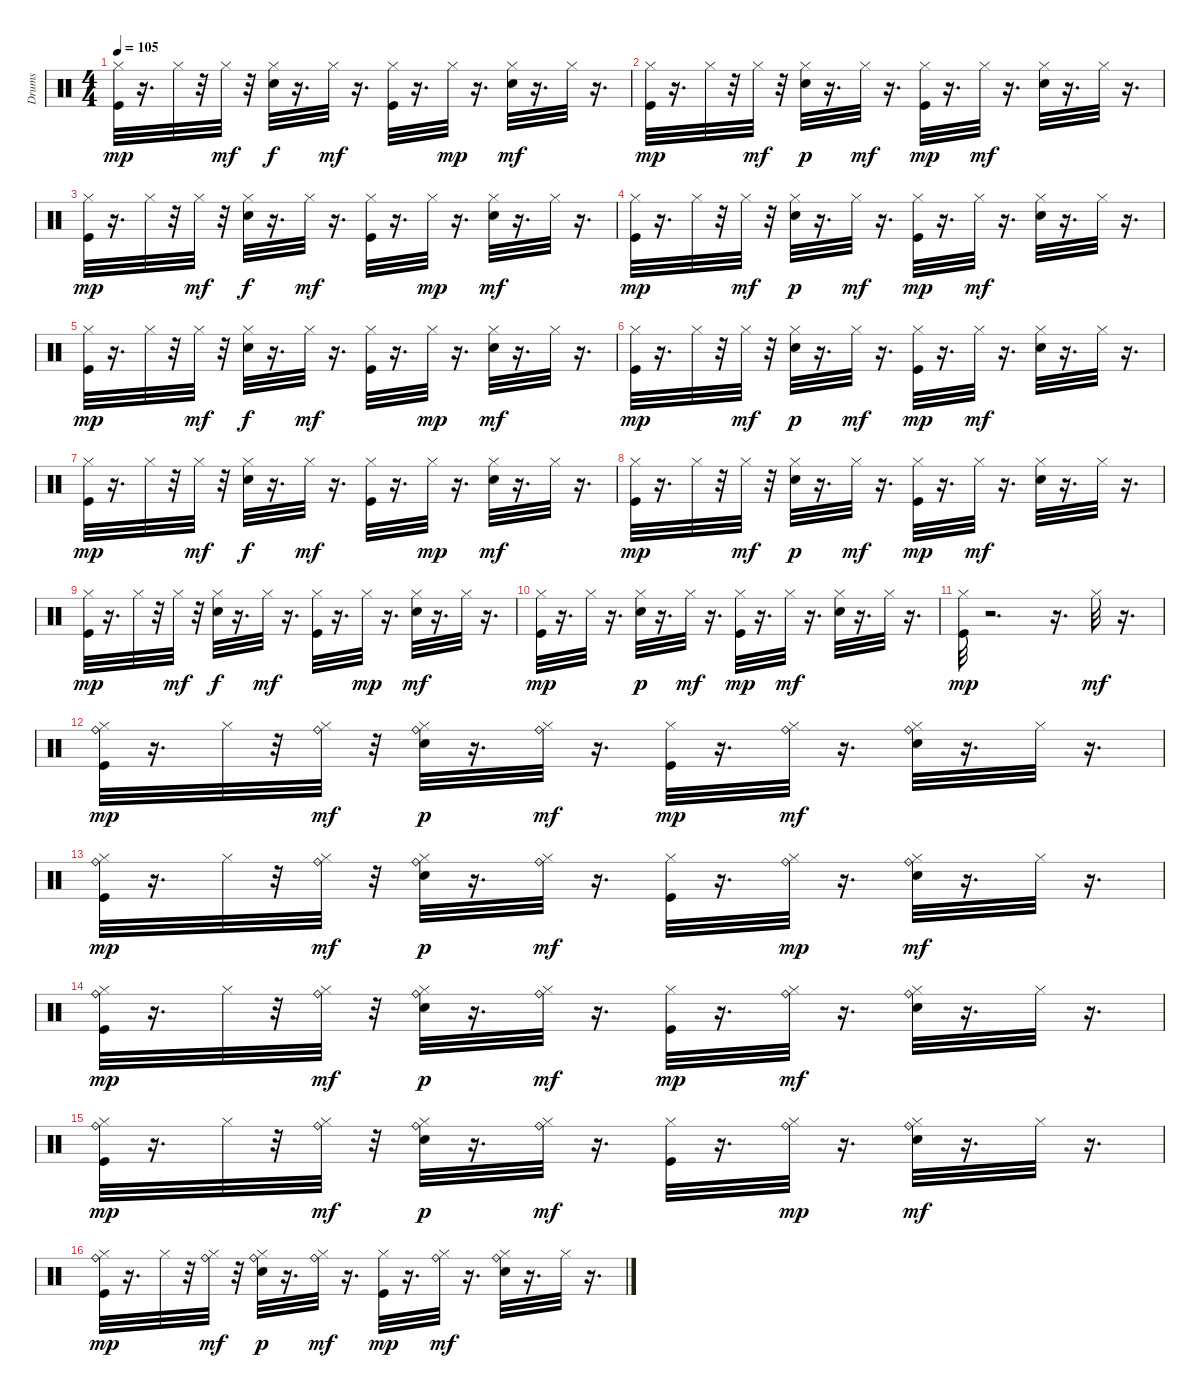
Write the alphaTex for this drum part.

\track ("Drums" "Drums") {instrument percussion}
\staff {score}
\articulation defaults
\ts (4 4)
\tempo 105
\clef neutral
\ks c
("Kick (hit)" "Hi-Hat (closed)").32{dy mp} r.16{d} "Hi-Hat (closed)".32 r.32 "Hi-Hat (closed)".32{dy mf} r.32 ("Snare (hit) 2" "Hi-Hat (closed)").32{dy f} r.16{d} "Hi-Hat (closed)".32{dy mf} r.16{d} ("Kick (hit)" "Hi-Hat (closed)").32 r.16{d} "Hi-Hat (closed)".32{dy mp} r.16{d} ("Snare (hit) 2" "Hi-Hat (closed)").32{dy mf} r.16{d} "Hi-Hat (closed)".32 r.16{d} |
("Kick (hit)" "Hi-Hat (closed)").32{dy mp} r.16{d} "Hi-Hat (closed)".32 r.32 "Hi-Hat (closed)".32{dy mf} r.32 ("Snare (hit) 2" "Hi-Hat (closed)").32{dy p} r.16{d} "Hi-Hat (closed)".32{dy mf} r.16{d} ("Kick (hit)" "Hi-Hat (closed)").32{dy mp} r.16{d} "Hi-Hat (closed)".32{dy mf} r.16{d} ("Snare (hit) 2" "Hi-Hat (closed)").32 r.16{d} "Hi-Hat (closed)".32 r.16{d} |
("Kick (hit)" "Hi-Hat (closed)").32{dy mp} r.16{d} "Hi-Hat (closed)".32 r.32 "Hi-Hat (closed)".32{dy mf} r.32 ("Snare (hit) 2" "Hi-Hat (closed)").32{dy f} r.16{d} "Hi-Hat (closed)".32{dy mf} r.16{d} ("Kick (hit)" "Hi-Hat (closed)").32 r.16{d} "Hi-Hat (closed)".32{dy mp} r.16{d} ("Snare (hit) 2" "Hi-Hat (closed)").32{dy mf} r.16{d} "Hi-Hat (closed)".32 r.16{d} |
("Kick (hit)" "Hi-Hat (closed)").32{dy mp} r.16{d} "Hi-Hat (closed)".32 r.32 "Hi-Hat (closed)".32{dy mf} r.32 ("Snare (hit) 2" "Hi-Hat (closed)").32{dy p} r.16{d} "Hi-Hat (closed)".32{dy mf} r.16{d} ("Kick (hit)" "Hi-Hat (closed)").32{dy mp} r.16{d} "Hi-Hat (closed)".32{dy mf} r.16{d} ("Snare (hit) 2" "Hi-Hat (closed)").32 r.16{d} "Hi-Hat (closed)".32 r.16{d} |
("Kick (hit)" "Hi-Hat (closed)").32{dy mp} r.16{d} "Hi-Hat (closed)".32 r.32 "Hi-Hat (closed)".32{dy mf} r.32 ("Snare (hit) 2" "Hi-Hat (closed)").32{dy f} r.16{d} "Hi-Hat (closed)".32{dy mf} r.16{d} ("Kick (hit)" "Hi-Hat (closed)").32 r.16{d} "Hi-Hat (closed)".32{dy mp} r.16{d} ("Snare (hit) 2" "Hi-Hat (closed)").32{dy mf} r.16{d} "Hi-Hat (closed)".32 r.16{d} |
("Kick (hit)" "Hi-Hat (closed)").32{dy mp} r.16{d} "Hi-Hat (closed)".32 r.32 "Hi-Hat (closed)".32{dy mf} r.32 ("Snare (hit) 2" "Hi-Hat (closed)").32{dy p} r.16{d} "Hi-Hat (closed)".32{dy mf} r.16{d} ("Kick (hit)" "Hi-Hat (closed)").32{dy mp} r.16{d} "Hi-Hat (closed)".32{dy mf} r.16{d} ("Snare (hit) 2" "Hi-Hat (closed)").32 r.16{d} "Hi-Hat (closed)".32 r.16{d} |
("Kick (hit)" "Hi-Hat (closed)").32{dy mp} r.16{d} "Hi-Hat (closed)".32 r.32 "Hi-Hat (closed)".32{dy mf} r.32 ("Snare (hit) 2" "Hi-Hat (closed)").32{dy f} r.16{d} "Hi-Hat (closed)".32{dy mf} r.16{d} ("Kick (hit)" "Hi-Hat (closed)").32 r.16{d} "Hi-Hat (closed)".32{dy mp} r.16{d} ("Snare (hit) 2" "Hi-Hat (closed)").32{dy mf} r.16{d} "Hi-Hat (closed)".32 r.16{d} |
("Kick (hit)" "Hi-Hat (closed)").32{dy mp} r.16{d} "Hi-Hat (closed)".32 r.32 "Hi-Hat (closed)".32{dy mf} r.32 ("Snare (hit) 2" "Hi-Hat (closed)").32{dy p} r.16{d} "Hi-Hat (closed)".32{dy mf} r.16{d} ("Kick (hit)" "Hi-Hat (closed)").32{dy mp} r.16{d} "Hi-Hat (closed)".32{dy mf} r.16{d} ("Snare (hit) 2" "Hi-Hat (closed)").32 r.16{d} "Hi-Hat (closed)".32 r.16{d} |
("Kick (hit)" "Hi-Hat (closed)").32{dy mp} r.16{d} "Hi-Hat (closed)".32 r.32 "Hi-Hat (closed)".32{dy mf} r.32 ("Snare (hit) 2" "Hi-Hat (closed)").32{dy f} r.16{d} "Hi-Hat (closed)".32{dy mf} r.16{d} ("Kick (hit)" "Hi-Hat (closed)").32 r.16{d} "Hi-Hat (closed)".32{dy mp} r.16{d} ("Snare (hit) 2" "Hi-Hat (closed)").32{dy mf} r.16{d} "Hi-Hat (closed)".32 r.16{d} |
("Kick (hit)" "Hi-Hat (closed)").32{dy mp} r.16{d} "Hi-Hat (closed)".32 r.16{d} ("Snare (hit) 2" "Hi-Hat (closed)").32{dy p} r.16{d} "Hi-Hat (closed)".32{dy mf} r.16{d} ("Kick (hit)" "Hi-Hat (closed)").32{dy mp} r.16{d} "Hi-Hat (closed)".32{dy mf} r.16{d} ("Snare (hit) 2" "Hi-Hat (closed)").32 r.16{d} "Hi-Hat (closed)".32 r.16{d} |
("Kick (hit)" "Hi-Hat (closed)").32{dy mp} r.2{d} r.16{d} "Hi-Hat (closed)".32{dy mf} r.16{d} |
("Ride (bell)" "Kick (hit)" "Hi-Hat (closed)").32{dy mp} r.16{d} "Hi-Hat (closed)".32 r.32 ("Ride (bell)" "Hi-Hat (closed)").32{dy mf} r.32 ("Snare (hit) 2" "Ride (bell)" "Hi-Hat (closed)").32{dy p} r.16{d} ("Ride (bell)" "Hi-Hat (closed)").32{dy mf} r.16{d} ("Kick (hit)" "Hi-Hat (closed)").32{dy mp} r.16{d} ("Ride (bell)" "Hi-Hat (closed)").32{dy mf} r.16{d} ("Snare (hit) 2" "Ride (bell)" "Hi-Hat (closed)").32 r.16{d} "Hi-Hat (closed)".32 r.16{d} |
("Ride (bell)" "Kick (hit)" "Hi-Hat (closed)").32{dy mp} r.16{d} "Hi-Hat (closed)".32 r.32 ("Ride (bell)" "Hi-Hat (closed)").32{dy mf} r.32 ("Snare (hit) 2" "Ride (bell)" "Hi-Hat (closed)").32{dy p} r.16{d} ("Ride (bell)" "Hi-Hat (closed)").32{dy mf} r.16{d} ("Kick (hit)" "Hi-Hat (closed)").32 r.16{d} ("Ride (bell)" "Hi-Hat (closed)").32{dy mp} r.16{d} ("Snare (hit) 2" "Ride (bell)" "Hi-Hat (closed)").32{dy mf} r.16{d} "Hi-Hat (closed)".32 r.16{d} |
("Ride (bell)" "Kick (hit)" "Hi-Hat (closed)").32{dy mp} r.16{d} "Hi-Hat (closed)".32 r.32 ("Ride (bell)" "Hi-Hat (closed)").32{dy mf} r.32 ("Snare (hit) 2" "Ride (bell)" "Hi-Hat (closed)").32{dy p} r.16{d} ("Ride (bell)" "Hi-Hat (closed)").32{dy mf} r.16{d} ("Kick (hit)" "Hi-Hat (closed)").32{dy mp} r.16{d} ("Ride (bell)" "Hi-Hat (closed)").32{dy mf} r.16{d} ("Snare (hit) 2" "Ride (bell)" "Hi-Hat (closed)").32 r.16{d} "Hi-Hat (closed)".32 r.16{d} |
("Ride (bell)" "Kick (hit)" "Hi-Hat (closed)").32{dy mp} r.16{d} "Hi-Hat (closed)".32 r.32 ("Ride (bell)" "Hi-Hat (closed)").32{dy mf} r.32 ("Snare (hit) 2" "Ride (bell)" "Hi-Hat (closed)").32{dy p} r.16{d} ("Ride (bell)" "Hi-Hat (closed)").32{dy mf} r.16{d} ("Kick (hit)" "Hi-Hat (closed)").32 r.16{d} ("Ride (bell)" "Hi-Hat (closed)").32{dy mp} r.16{d} ("Snare (hit) 2" "Ride (bell)" "Hi-Hat (closed)").32{dy mf} r.16{d} "Hi-Hat (closed)".32 r.16{d} |
("Ride (bell)" "Kick (hit)" "Hi-Hat (closed)").32{dy mp} r.16{d} "Hi-Hat (closed)".32 r.32 ("Ride (bell)" "Hi-Hat (closed)").32{dy mf} r.32 ("Snare (hit) 2" "Ride (bell)" "Hi-Hat (closed)").32{dy p} r.16{d} ("Ride (bell)" "Hi-Hat (closed)").32{dy mf} r.16{d} ("Kick (hit)" "Hi-Hat (closed)").32{dy mp} r.16{d} ("Ride (bell)" "Hi-Hat (closed)").32{dy mf} r.16{d} ("Snare (hit) 2" "Ride (bell)" "Hi-Hat (closed)").32 r.16{d} "Hi-Hat (closed)".32 r.16{d}
